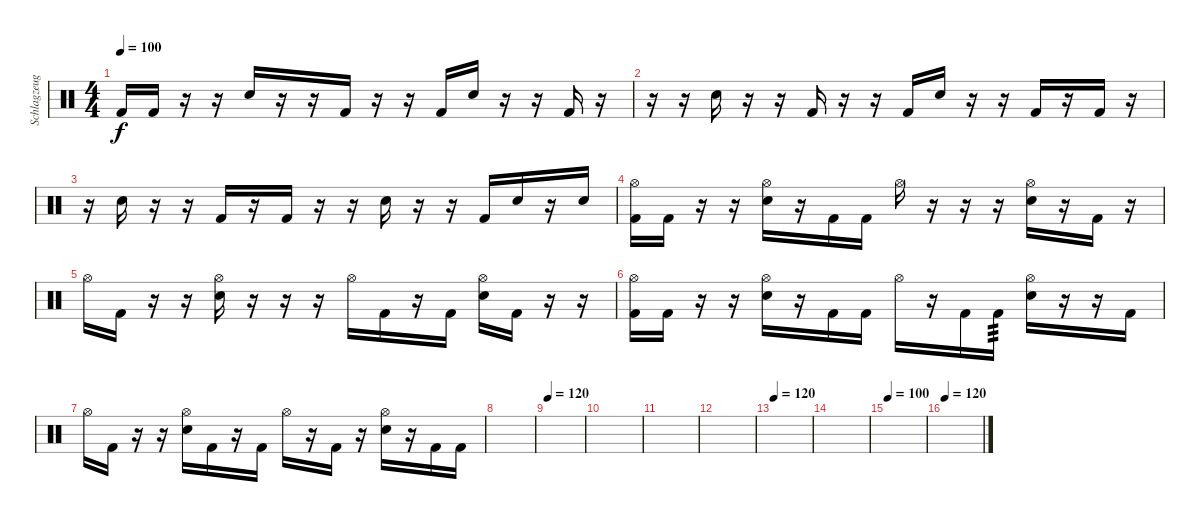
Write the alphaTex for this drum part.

\track ("Schlagzeug" "Schlagzeug") {instrument percussion}
\staff {score}
\articulation defaults
\ts (4 4)
\tempo 100
\clef neutral
\ks c "Kick (hit) 2".16{dy f} "Kick (hit) 2".16
r.16 r.16 "Snare (hit) 2".16 r.16 r.16 "Kick (hit) 2".16 r.16 r.16 "Kick (hit) 2".16 "Snare (hit) 2".16 r.16 r.16 "Kick (hit) 2".16 r.16 |
r.16 r.16 "Snare (hit) 2".16 r.16 r.16 "Kick (hit) 2".16 r.16 r.16 "Kick (hit) 2".16 "Snare (hit) 2".16 r.16 r.16 "Kick (hit) 2".16 r.16 "Kick (hit) 2".16 r.16 |
r.16 "Snare (hit) 2".16 r.16 r.16 "Kick (hit) 2".16 r.16 "Kick (hit) 2".16 r.16 r.16 "Snare (hit) 2".16 r.16 r.16 "Kick (hit) 2".16 "Snare (hit) 2".16 r.16 "Snare (hit) 2".16 |
("Hi-Hat (open)" "Kick (hit) 2").16 "Kick (hit) 2".16 r.16 r.16 ("Hi-Hat (open)" "Snare (hit) 2").16 r.16 "Kick (hit) 2".16 "Kick (hit) 2".16 "Hi-Hat (open)".16 r.16 r.16 r.16 ("Hi-Hat (open)" "Snare (hit) 2").16 r.16 "Kick (hit) 2".16 r.16 |
"Hi-Hat (open)".16 "Kick (hit) 2".16 r.16 r.16 ("Hi-Hat (open)" "Snare (hit) 2").16 r.16 r.16 r.16 "Hi-Hat (open)".16 "Kick (hit) 2".16 r.16 "Kick (hit) 2".16 ("Hi-Hat (open)" "Snare (hit) 2").16 "Kick (hit) 2".16 r.16 r.16 |
("Hi-Hat (open)" "Kick (hit) 2").16 "Kick (hit) 2".16 r.16 r.16 ("Hi-Hat (open)" "Snare (hit) 2").16 r.16 "Kick (hit) 2".16 "Kick (hit) 2".16 "Hi-Hat (open)".16 r.16 "Kick (hit) 2".16 "Kick (hit) 2".16{tp 3} ("Hi-Hat (open)" "Snare (hit) 2").16 r.16 r.16 "Kick (hit) 2".16 |
"Hi-Hat (open)".16 "Kick (hit) 2".16 r.16 r.16 ("Hi-Hat (open)" "Snare (hit) 2").16 "Kick (hit) 2".16 r.16 "Kick (hit) 2".16 "Hi-Hat (open)".16 r.16 "Kick (hit) 2".16 r.16 ("Hi-Hat (open)" "Snare (hit) 2").16 r.16 "Kick (hit) 2".16 "Kick (hit) 2".16 |
|
\tempo 120
|
|
|
|
\tempo 120
|
|
\tempo 100
|
\tempo 120
